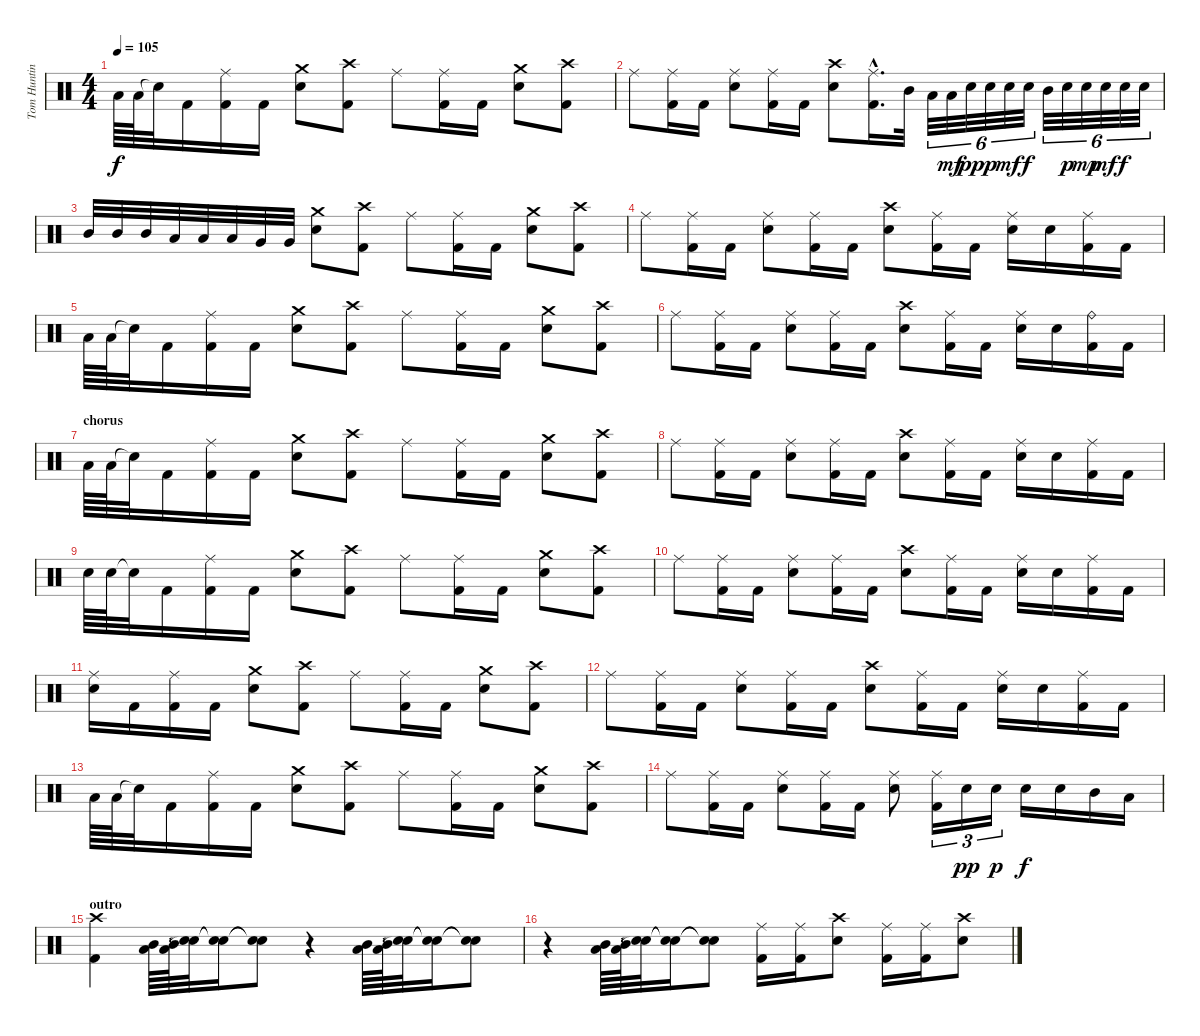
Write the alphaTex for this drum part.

\track ("Tom Hunting" "Tom Huntin") {instrument percussion}
\staff {score}
\articulation defaults
\ts (4 4)
\tempo 105
\clef neutral
\ks c "Low Tom (hit)".64{dy f} "Low Tom (hit)".64 "Snare (hit)"{t}.32 "Kick (hit) 2".16
("Kick (hit) 2" "Ride (middle)").16 "Kick (hit) 2".16 ("Crash medium (hit)" "Snare (hit) 2").8 ("Kick (hit) 2" "Crash high (hit)").8 "Ride (middle)".8 ("Kick (hit) 2" "Ride (middle)").16 "Kick (hit) 2".16 ("Crash medium (hit)" "Snare (hit) 2").8 ("Kick (hit) 2" "Crash high (hit)").8 |
"Ride (middle)".8 ("Kick (hit) 2" "Ride (middle)").16 "Kick (hit) 2".16 ("Ride (middle)" "Snare (hit) 2").8 ("Kick (hit) 2" "Ride (middle)").16 "Kick (hit) 2".16 ("Crash high (hit)" "Snare (hit) 2").8 ("Kick (hit) 2"{hac} "Ride (middle)"{hac}).16{d} "Mid Tom (hit)".32 "Low Tom (hit)".32{tu (6 4)} "Low Floor Tom (hit)".32{tu (6 4) dy mf} "Snare (hit) 2".32{tu (6 4) dy pp} "Snare (hit) 2".32{tu (6 4) dy p} "Snare (hit) 2".32{tu (6 4) dy mf} "Snare (hit) 2".32{tu (6 4) dy f} "Mid Tom (hit)".32{tu (6 4)} "Snare (hit) 2".32{tu (6 4) dy p} "Snare (hit) 2".32{tu (6 4) dy mp} "Snare (hit) 2".32{tu (6 4) dy mf} "Snare (hit) 2".32{tu (6 4) dy f} "Snare (hit) 2".32{tu (6 4)} |
"Mid Tom (hit)".32 "Mid Tom (hit)".32 "Mid Tom (hit)".32 "Low Tom (hit)".32 "Low Tom (hit)".32 "Low Tom (hit)".32 "Very Low Tom (hit)".32 "Very Low Tom (hit)".32 ("Crash medium (hit)" "Snare (hit) 2").8 ("Kick (hit) 2" "Crash high (hit)").8 "Ride (middle)".8 ("Kick (hit) 2" "Ride (middle)").16 "Kick (hit) 2".16 ("Crash medium (hit)" "Snare (hit) 2").8 ("Kick (hit) 2" "Crash high (hit)").8 |
"Ride (middle)".8 ("Kick (hit) 2" "Ride (middle)").16 "Kick (hit) 2".16 ("Ride (middle)" "Snare (hit) 2").8 ("Kick (hit) 2" "Ride (middle)").16 "Kick (hit) 2".16 ("Crash high (hit)" "Snare (hit) 2").8 ("Kick (hit) 2" "Ride (middle)").16 "Kick (hit) 2".16 ("Ride (middle)" "Snare (hit) 2").16 "Snare (hit) 2".16 ("Kick (hit) 2" "Ride (middle)").16 "Kick (hit) 2".16 |
"Low Tom (hit)".64 "Low Tom (hit)".64 "Snare (hit)"{t}.32 "Kick (hit) 2".16 ("Kick (hit) 2" "Ride (middle)").16 "Kick (hit) 2".16 ("Crash medium (hit)" "Snare (hit) 2").8 ("Kick (hit) 2" "Crash high (hit)").8 "Ride (middle)".8 ("Kick (hit) 2" "Ride (middle)").16 "Kick (hit) 2".16 ("Crash medium (hit)" "Snare (hit) 2").8 ("Kick (hit) 2" "Crash high (hit)").8 |
"Ride (middle)".8 ("Kick (hit) 2" "Ride (middle)").16 "Kick (hit) 2".16 ("Ride (middle)" "Snare (hit) 2").8 ("Kick (hit) 2" "Ride (middle)").16 "Kick (hit) 2".16 ("Crash high (hit)" "Snare (hit) 2").8 ("Kick (hit) 2" "Ride (middle)").16 "Kick (hit) 2".16 ("Ride (middle)" "Snare (hit) 2").16 "Snare (hit) 2".16 ("Kick (hit) 2" "Ride (bell)").16 "Kick (hit) 2".16 |
\section ("" "chorus")
"Low Tom (hit)".64 "Low Tom (hit)".64 "Snare (hit)"{t}.32 "Kick (hit) 2".16 ("Kick (hit) 2" "Ride (middle)").16 "Kick (hit) 2".16 ("Crash medium (hit)" "Snare (hit) 2").8 ("Kick (hit) 2" "Crash high (hit)").8 "Ride (middle)".8 ("Kick (hit) 2" "Ride (middle)").16 "Kick (hit) 2".16 ("Crash medium (hit)" "Snare (hit) 2").8 ("Kick (hit) 2" "Crash high (hit)").8 |
"Ride (middle)".8 ("Kick (hit) 2" "Ride (middle)").16 "Kick (hit) 2".16 ("Ride (middle)" "Snare (hit) 2").8 ("Kick (hit) 2" "Ride (middle)").16 "Kick (hit) 2".16 ("Crash high (hit)" "Snare (hit) 2").8 ("Kick (hit) 2" "Ride (middle)").16 "Kick (hit) 2".16 ("Ride (middle)" "Snare (hit) 2").16 "Snare (hit) 2".16 ("Kick (hit) 2" "Ride (middle)").16 "Kick (hit) 2".16 |
"Snare (hit) 2".64 "Snare (hit) 2".64 "Snare (hit)"{t}.32 "Kick (hit) 2".16 ("Kick (hit) 2" "Ride (middle)").16 "Kick (hit) 2".16 ("Crash medium (hit)" "Snare (hit) 2").8 ("Kick (hit) 2" "Crash high (hit)").8 "Ride (middle)".8 ("Kick (hit) 2" "Ride (middle)").16 "Kick (hit) 2".16 ("Crash medium (hit)" "Snare (hit) 2").8 ("Kick (hit) 2" "Crash high (hit)").8 |
"Ride (middle)".8 ("Kick (hit) 2" "Ride (middle)").16 "Kick (hit) 2".16 ("Ride (middle)" "Snare (hit) 2").8 ("Kick (hit) 2" "Ride (middle)").16 "Kick (hit) 2".16 ("Crash high (hit)" "Snare (hit) 2").8 ("Kick (hit) 2" "Ride (middle)").16 "Kick (hit) 2".16 ("Ride (middle)" "Snare (hit) 2").16 "Snare (hit) 2".16 ("Kick (hit) 2" "Ride (middle)").16 "Kick (hit) 2".16 |
("Ride (middle)" "Snare (hit) 2").16 "Kick (hit) 2".16 ("Kick (hit) 2" "Ride (middle)").16 "Kick (hit) 2".16 ("Crash medium (hit)" "Snare (hit) 2").8 ("Kick (hit) 2" "Crash high (hit)").8 "Ride (middle)".8 ("Kick (hit) 2" "Ride (middle)").16 "Kick (hit) 2".16 ("Crash medium (hit)" "Snare (hit) 2").8 ("Kick (hit) 2" "Crash high (hit)").8 |
"Ride (middle)".8 ("Kick (hit) 2" "Ride (middle)").16 "Kick (hit) 2".16 ("Ride (middle)" "Snare (hit) 2").8 ("Kick (hit) 2" "Ride (middle)").16 "Kick (hit) 2".16 ("Crash high (hit)" "Snare (hit) 2").8 ("Kick (hit) 2" "Ride (middle)").16 "Kick (hit) 2".16 ("Ride (middle)" "Snare (hit) 2").16 "Snare (hit) 2".16 ("Kick (hit) 2" "Ride (middle)").16 "Kick (hit) 2".16 |
"Low Tom (hit)".64 "Low Tom (hit)".64 "Snare (hit)"{t}.32 "Kick (hit) 2".16 ("Kick (hit) 2" "Ride (middle)").16 "Kick (hit) 2".16 ("Crash medium (hit)" "Snare (hit) 2").8 ("Kick (hit) 2" "Crash high (hit)").8 "Ride (middle)".8 ("Kick (hit) 2" "Ride (middle)").16 "Kick (hit) 2".16 ("Crash medium (hit)" "Snare (hit) 2").8 ("Kick (hit) 2" "Crash high (hit)").8 |
"Ride (middle)".8 ("Kick (hit) 2" "Ride (middle)").16 "Kick (hit) 2".16 ("Ride (middle)" "Snare (hit) 2").8 ("Kick (hit) 2" "Ride (middle)").16 "Kick (hit) 2".16 ("Ride (middle)" "Snare (hit) 2").8 ("Kick (hit) 2" "Ride (middle)").16{tu (3 2)} "Snare (hit) 2".16{tu (3 2) dy pp} "Snare (hit) 2".16{tu (3 2) dy p} "Snare (hit) 2".16{dy f} "Snare (hit) 2".16 "Mid Tom (hit)".16 "Low Tom (hit)".16 |
\section ("" "outro")
("Kick (hit) 2" "Crash high (hit)").4 ("Low Tom (hit)" "Mid Tom (hit)").64 ("Low Tom (hit)" "Mid Tom (hit)").64 ("Snare (hit)"{t} "Snare (hit)"{t}).32 ("Snare (hit)"{t} "Snare (hit)"{t}).16 ("Snare (hit)"{t} "Snare (hit)"{t}).8 r.4 ("Low Tom (hit)" "Mid Tom (hit)").64 ("Low Tom (hit)" "Mid Tom (hit)").64 ("Snare (hit)"{t} "Snare (hit)"{t}).32 ("Snare (hit)"{t} "Snare (hit)"{t}).16 ("Snare (hit)"{t} "Snare (hit)"{t}).8 |
r.4 ("Low Tom (hit)" "Mid Tom (hit)").64 ("Low Tom (hit)" "Mid Tom (hit)").64 ("Snare (hit)"{t} "Snare (hit)"{t}).32 ("Snare (hit)"{t} "Snare (hit)"{t}).16 ("Snare (hit)"{t} "Snare (hit)"{t}).8 ("Kick (hit) 2" "Ride (middle)").16 ("Kick (hit) 2" "Ride (middle)").16 ("Crash high (hit)" "Snare (hit) 2").8 ("Kick (hit) 2" "Ride (middle)").16 ("Kick (hit) 2" "Ride (middle)").16 ("Crash high (hit)" "Snare (hit) 2").8
